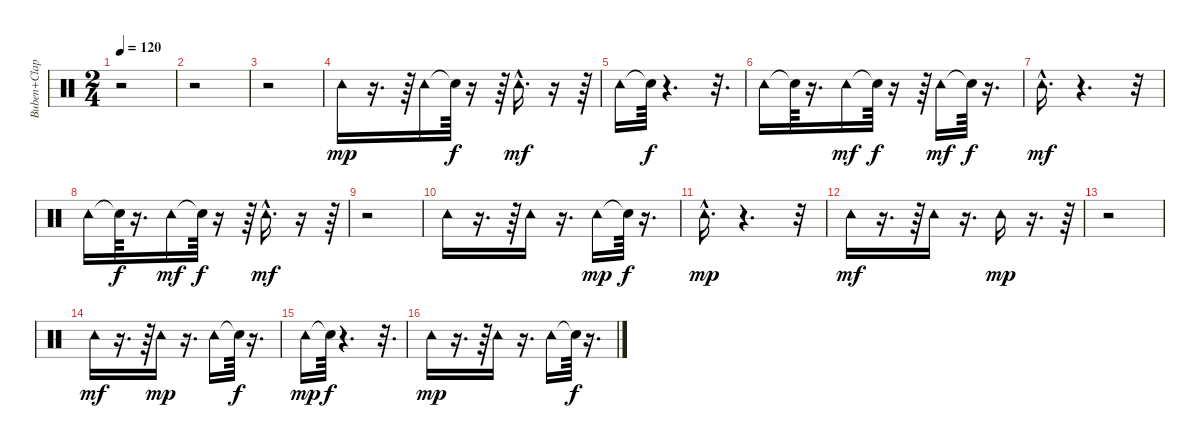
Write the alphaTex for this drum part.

\track ("Buben+Clap" "Buben+Clap") {instrument percussion}
\staff {score}
\articulation defaults
\ts (2 4)
\tempo 120
\clef neutral
\ks c
r.2{dy ff} |
r.2 |
r.2 |
"Tambourine (hit)".16{dy mp} r.16{d} r.64 "Tambourine (hit)".16 "Snare (hit)"{t}.64{dy f} r.16 r.64 "Tambourine (hit)"{hac}.16{d dy mf} r.16 r.64 |
"Tambourine (hit)".16 "Snare (hit)"{t}.64{dy f} r.4{d} r.32{d} |
"Tambourine (hit)".16 "Snare (hit)"{t}.64 r.16{d} "Tambourine (hit)".16{dy mf} "Snare (hit)"{t}.64{dy f} r.16 r.64 "Tambourine (hit)".16{dy mf} "Snare (hit)"{t}.64{dy f} r.16{d} |
"Tambourine (hit)"{hac}.16{d dy mf} r.4{d} r.32 |
"Tambourine (hit)".16 "Snare (hit)"{t}.64{dy f} r.16{d} "Tambourine (hit)".16{dy mf} "Snare (hit)"{t}.64{dy f} r.16 r.64 "Tambourine (hit)"{hac}.16{d dy mf} r.16 r.64 |
r.2 |
"Tambourine (hit)".16 r.16{d} r.64 "Tambourine (hit)".16 r.16{d} "Tambourine (hit)".16{dy mp} "Snare (hit)"{t}.64{dy f} r.16{d} |
"Tambourine (hit)"{hac}.16{d dy mp} r.4{d} r.32 |
"Tambourine (hit)".16{dy mf} r.16{d} r.64 "Tambourine (hit)".16 r.16{d} "Tambourine (hit)".16{dy mp} r.16{d} r.64 |
r.2 |
"Tambourine (hit)".16{dy mf} r.16{d} r.64 "Tambourine (hit)".16{dy mp} r.16{d} "Tambourine (hit)".16 "Snare (hit)"{t}.64{dy f} r.16{d} |
"Tambourine (hit)".16{dy mp} "Snare (hit)"{t}.64{dy f} r.4{d} r.32{d} |
"Tambourine (hit)".16{dy mp} r.16{d} r.64 "Tambourine (hit)".16 r.16{d} "Tambourine (hit)".16 "Snare (hit)"{t}.64{dy f} r.16{d}
